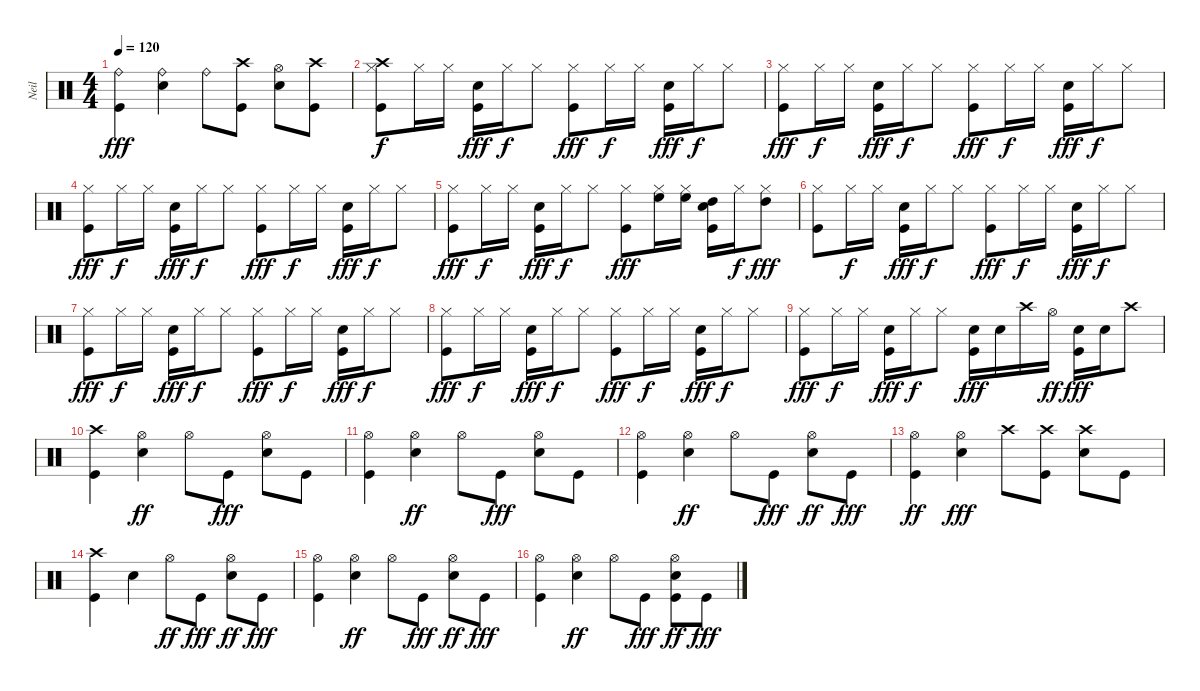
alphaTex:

\track ("Neil" "Neil") {instrument percussion}
\staff {score}
\articulation defaults
\ts (4 4)
\tempo 120
\clef neutral
\ks c
("Ride (bell)" "Kick (hit)").4{dy fff} ("Snare (hit) 2" "Ride (bell)").4 "Ride (bell)".8 ("Kick (hit)" "Crash high (hit)").8 ("Hi-Hat (open)" "Snare (hit) 2").8 ("Kick (hit)" "Crash high (hit)").8 |
("Crash high (hit)" "Kick (hit)" "Hi-Hat (closed)").8{dy f} "Hi-Hat (closed)".16 "Hi-Hat (closed)".16 ("Kick (hit)" "Snare (hit) 2").16{dy fff} "Hi-Hat (closed)".16{dy f} "Hi-Hat (closed)".8 ("Kick (hit)" "Hi-Hat (closed)").8{dy fff} "Hi-Hat (closed)".16{dy f} "Hi-Hat (closed)".16 ("Kick (hit)" "Snare (hit) 2").16{dy fff} "Hi-Hat (closed)".16{dy f} "Hi-Hat (closed)".8 |
("Kick (hit)" "Hi-Hat (closed)").8{dy fff} "Hi-Hat (closed)".16{dy f} "Hi-Hat (closed)".16 ("Kick (hit)" "Snare (hit) 2").16{dy fff} "Hi-Hat (closed)".16{dy f} "Hi-Hat (closed)".8 ("Kick (hit)" "Hi-Hat (closed)").8{dy fff} "Hi-Hat (closed)".16{dy f} "Hi-Hat (closed)".16 ("Kick (hit)" "Snare (hit) 2").16{dy fff} "Hi-Hat (closed)".16{dy f} "Hi-Hat (closed)".8 |
("Kick (hit)" "Hi-Hat (closed)").8{dy fff} "Hi-Hat (closed)".16{dy f} "Hi-Hat (closed)".16 ("Kick (hit)" "Snare (hit) 2").16{dy fff} "Hi-Hat (closed)".16{dy f} "Hi-Hat (closed)".8 ("Kick (hit)" "Hi-Hat (closed)").8{dy fff} "Hi-Hat (closed)".16{dy f} "Hi-Hat (closed)".16 ("Kick (hit)" "Snare (hit) 2").16{dy fff} "Hi-Hat (closed)".16{dy f} "Hi-Hat (closed)".8 |
("Kick (hit)" "Hi-Hat (closed)").8{dy fff} "Hi-Hat (closed)".16{dy f} "Hi-Hat (closed)".16 ("Kick (hit)" "Snare (hit) 2").16{dy fff} "Hi-Hat (closed)".16{dy f} "Hi-Hat (closed)".8 ("Kick (hit)" "Hi-Hat (closed)").8{dy fff} ("Hi-Hat (closed)" "High Floor Tom (hit)").16 ("Hi-Hat (closed)" "High Floor Tom (hit)").16 ("Kick (hit)" "High Tom (hit)" "Snare (hit) 2").16 "Hi-Hat (closed)".16{dy f} ("Hi-Hat (closed)" "High Tom (hit)").8{dy fff} |
("Kick (hit)" "Hi-Hat (closed)").8 "Hi-Hat (closed)".16{dy f} "Hi-Hat (closed)".16 ("Kick (hit)" "Snare (hit) 2").16{dy fff} "Hi-Hat (closed)".16{dy f} "Hi-Hat (closed)".8 ("Kick (hit)" "Hi-Hat (closed)").8{dy fff} "Hi-Hat (closed)".16{dy f} "Hi-Hat (closed)".16 ("Snare (hit) 2" "Kick (hit)").16{dy fff} "Hi-Hat (closed)".16{dy f} "Hi-Hat (closed)".8 |
("Kick (hit)" "Hi-Hat (closed)").8{dy fff} "Hi-Hat (closed)".16{dy f} "Hi-Hat (closed)".16 ("Snare (hit) 2" "Kick (hit)").16{dy fff} "Hi-Hat (closed)".16{dy f} "Hi-Hat (closed)".8 ("Kick (hit)" "Hi-Hat (closed)").8{dy fff} "Hi-Hat (closed)".16{dy f} "Hi-Hat (closed)".16 ("Kick (hit)" "Snare (hit) 2").16{dy fff} "Hi-Hat (closed)".16{dy f} "Hi-Hat (closed)".8 |
("Kick (hit)" "Hi-Hat (closed)").8{dy fff} "Hi-Hat (closed)".16{dy f} "Hi-Hat (closed)".16 ("Snare (hit) 2" "Kick (hit)").16{dy fff} "Hi-Hat (closed)".16{dy f} "Hi-Hat (closed)".8 ("Kick (hit)" "Hi-Hat (closed)").8{dy fff} "Hi-Hat (closed)".16{dy f} "Hi-Hat (closed)".16 ("Snare (hit) 2" "Kick (hit)").16{dy fff} "Hi-Hat (closed)".16{dy f} "Hi-Hat (closed)".8 |
("Kick (hit)" "Hi-Hat (closed)").8{dy fff} "Hi-Hat (closed)".16{dy f} "Hi-Hat (closed)".16 ("Kick (hit)" "Snare (hit) 2").16{dy fff} "Hi-Hat (closed)".16{dy f} "Hi-Hat (closed)".8 ("Snare (hit) 2" "Kick (hit)").16{dy fff} "Snare (hit) 2".16 "Crash high (hit)".16 "Hi-Hat (open)".16{dy ff} ("Kick (hit)" "Snare (hit) 2").16{dy fff} "Snare (hit) 2".16 "Crash high (hit)".8 |
("Kick (hit)" "Crash high (hit)").4 ("Snare (hit) 2" "Hi-Hat (open)").4{dy ff} "Hi-Hat (open)".8 "Kick (hit)".8{dy fff} ("Hi-Hat (open)" "Snare (hit) 2").8 "Kick (hit)".8 |
("Hi-Hat (open)" "Kick (hit)").4 ("Snare (hit) 2" "Hi-Hat (open)").4{dy ff} "Hi-Hat (open)".8 "Kick (hit)".8{dy fff} ("Hi-Hat (open)" "Snare (hit) 2").8 "Kick (hit)".8 |
("Hi-Hat (open)" "Kick (hit)").4 ("Snare (hit) 2" "Hi-Hat (open)").4{dy ff} "Hi-Hat (open)".8 "Kick (hit)".8{dy fff} ("Snare (hit) 2" "Hi-Hat (open)").8{dy ff} "Kick (hit)".8{dy fff} |
("Kick (hit)" "Hi-Hat (open)").4{dy ff} ("Hi-Hat (open)" "Snare (hit) 2").4{dy fff} "Crash high (hit)".8 ("Crash high (hit)" "Kick (hit)").8 ("Crash high (hit)" "Snare (hit) 2").8 "Kick (hit)".8 |
("Kick (hit)" "Crash high (hit)").4 "Snare (hit) 2".4 "Hi-Hat (open)".8{dy ff} "Kick (hit)".8{dy fff} ("Snare (hit) 2" "Hi-Hat (open)").8{dy ff} "Kick (hit)".8{dy fff} |
("Hi-Hat (open)" "Kick (hit)").4 ("Snare (hit) 2" "Hi-Hat (open)").4{dy ff} "Hi-Hat (open)".8 "Kick (hit)".8{dy fff} ("Snare (hit) 2" "Hi-Hat (open)").8{dy ff} "Kick (hit)".8{dy fff} |
("Hi-Hat (open)" "Kick (hit)").4 ("Snare (hit) 2" "Hi-Hat (open)").4{dy ff} "Hi-Hat (open)".8 "Kick (hit)".8{dy fff} ("Snare (hit) 2" "Kick (hit)" "Hi-Hat (open)").8{dy ff} "Kick (hit)".8{dy fff}
